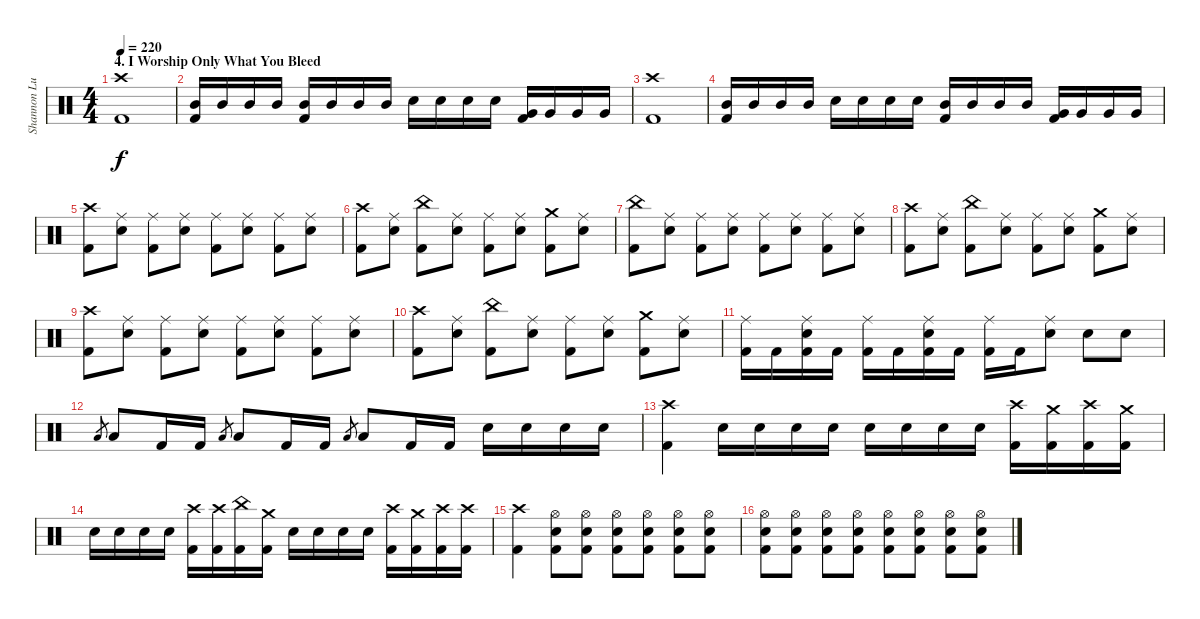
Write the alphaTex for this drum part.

\track ("Shannon Lucas [Drums (Since 2007)]" "Shannon Lu") {instrument percussion}
\staff {score}
\articulation defaults
\ts (4 4)
\section ("" "4. I Worship Only What You Bleed")
\tempo 220
\clef neutral
\ks c
("Crash high (hit)" "Kick (hit) 2").1{dy f} |
("Mid Tom (hit)" "Kick (hit) 2").16 "Mid Tom (hit)".16 "Mid Tom (hit)".16 "Mid Tom (hit)".16 ("Mid Tom (hit)" "Kick (hit) 2").16 "Mid Tom (hit)".16 "Mid Tom (hit)".16 "Mid Tom (hit)".16 "Snare (hit) 2".16 "Snare (hit) 2".16 "Snare (hit) 2".16 "Snare (hit) 2".16 ("Very Low Tom (hit)" "Kick (hit) 2").16 "Very Low Tom (hit)".16 "Very Low Tom (hit)".16 "Very Low Tom (hit)".16 |
("Crash high (hit)" "Kick (hit) 2").1 |
("Mid Tom (hit)" "Kick (hit) 2").16 "Mid Tom (hit)".16 "Mid Tom (hit)".16 "Mid Tom (hit)".16 "Snare (hit) 2".16 "Snare (hit) 2".16 "Snare (hit) 2".16 "Snare (hit) 2".16 ("Mid Tom (hit)" "Kick (hit) 2").16 "Mid Tom (hit)".16 "Mid Tom (hit)".16 "Mid Tom (hit)".16 ("Very Low Tom (hit)" "Kick (hit) 2").16 "Very Low Tom (hit)".16 "Very Low Tom (hit)".16 "Very Low Tom (hit)".16 |
("Crash high (hit)" "Kick (hit) 2").8 ("Ride (middle)" "Snare (hit) 2").8 ("Ride (middle)" "Kick (hit) 2").8 ("Ride (middle)" "Snare (hit) 2").8 ("Ride (middle)" "Kick (hit) 2").8 ("Ride (middle)" "Snare (hit) 2").8 ("Ride (middle)" "Kick (hit) 2").8 ("Ride (middle)" "Snare (hit) 2").8 |
("Crash high (hit)" "Kick (hit) 2").8 ("Ride (middle)" "Snare (hit) 2").8 ("China (hit)" "Kick (hit) 2").8 ("Ride (middle)" "Snare (hit) 2").8 ("Ride (middle)" "Kick (hit) 2").8 ("Ride (middle)" "Snare (hit) 2").8 ("Crash medium (hit)" "Kick (hit) 2").8 ("Ride (middle)" "Snare (hit) 2").8 |
("China (hit)" "Kick (hit) 2").8 ("Ride (middle)" "Snare (hit) 2").8 ("Ride (middle)" "Kick (hit) 2").8 ("Ride (middle)" "Snare (hit) 2").8 ("Ride (middle)" "Kick (hit) 2").8 ("Ride (middle)" "Snare (hit) 2").8 ("Ride (middle)" "Kick (hit) 2").8 ("Ride (middle)" "Snare (hit) 2").8 |
("Crash high (hit)" "Kick (hit) 2").8 ("Ride (middle)" "Snare (hit) 2").8 ("China (hit)" "Kick (hit) 2").8 ("Ride (middle)" "Snare (hit) 2").8 ("Ride (middle)" "Kick (hit) 2").8 ("Ride (middle)" "Snare (hit) 2").8 ("Crash medium (hit)" "Kick (hit) 2").8 ("Ride (middle)" "Snare (hit) 2").8 |
("Crash high (hit)" "Kick (hit) 2").8 ("Ride (middle)" "Snare (hit) 2").8 ("Ride (middle)" "Kick (hit) 2").8 ("Ride (middle)" "Snare (hit) 2").8 ("Ride (middle)" "Kick (hit) 2").8 ("Ride (middle)" "Snare (hit) 2").8 ("Ride (middle)" "Kick (hit) 2").8 ("Ride (middle)" "Snare (hit) 2").8 |
("Crash high (hit)" "Kick (hit) 2").8 ("Ride (middle)" "Snare (hit) 2").8 ("China (hit)" "Kick (hit) 2").8 ("Ride (middle)" "Snare (hit) 2").8 ("Ride (middle)" "Kick (hit) 2").8 ("Ride (middle)" "Snare (hit) 2").8 ("Crash medium (hit)" "Kick (hit) 2").8 ("Ride (middle)" "Snare (hit) 2").8 |
("Ride (middle)" "Kick (hit) 2").16 "Kick (hit) 2".16 ("Ride (middle)" "Snare (hit) 2" "Kick (hit) 2").16 "Kick (hit) 2".16 ("Ride (middle)" "Kick (hit) 2").16 "Kick (hit) 2".16 ("Ride (middle)" "Snare (hit) 2" "Kick (hit) 2").16 "Kick (hit) 2".16 ("Ride (middle)" "Kick (hit) 2").16 "Kick (hit) 2".16 ("Ride (middle)" "Snare (hit) 2").8 "Snare (hit) 2".8 "Snare (hit) 2".8 |
"Low Floor Tom (hit)".8{gr} "Low Floor Tom (hit)".8 "Kick (hit) 2".16 "Kick (hit) 2".16 "Low Floor Tom (hit)".8{gr} "Low Floor Tom (hit)".8 "Kick (hit) 2".16 "Kick (hit) 2".16 "Low Floor Tom (hit)".8{gr} "Low Floor Tom (hit)".8 "Kick (hit) 2".16 "Kick (hit) 2".16 "Snare (hit) 2".16 "Snare (hit) 2".16 "Snare (hit) 2".16 "Snare (hit) 2".16 |
("Crash high (hit)" "Kick (hit) 2").4 "Snare (hit) 2".16 "Snare (hit) 2".16 "Snare (hit) 2".16 "Snare (hit) 2".16 "Snare (hit) 2".16 "Snare (hit) 2".16 "Snare (hit) 2".16 "Snare (hit) 2".16 ("Crash high (hit)" "Kick (hit) 2").16 ("Crash medium (hit)" "Kick (hit) 2").16 ("Crash high (hit)" "Kick (hit) 2").16 ("Crash medium (hit)" "Kick (hit) 2").16 |
"Snare (hit) 2".16 "Snare (hit) 2".16 "Snare (hit) 2".16 "Snare (hit) 2".16 ("Crash high (hit)" "Kick (hit) 2").16 ("Crash high (hit)" "Kick (hit) 2").16 ("China (hit)" "Kick (hit) 2").16 ("Crash medium (hit)" "Kick (hit) 2").16 "Snare (hit) 2".16 "Snare (hit) 2".16 "Snare (hit) 2".16 "Snare (hit) 2".16 ("Crash high (hit)" "Kick (hit) 2").16 ("Crash medium (hit)" "Kick (hit) 2").16 ("Crash high (hit)" "Kick (hit) 2").16 ("Crash high (hit)" "Kick (hit) 2").16 |
("Crash high (hit)" "Kick (hit) 2").4 ("Hi-Hat (open)" "Kick (hit) 2" "Snare (hit) 2").8 ("Hi-Hat (open)" "Kick (hit) 2" "Snare (hit) 2").8 ("Hi-Hat (open)" "Kick (hit) 2" "Snare (hit) 2").8 ("Hi-Hat (open)" "Kick (hit) 2" "Snare (hit) 2").8 ("Hi-Hat (open)" "Kick (hit) 2" "Snare (hit) 2").8 ("Hi-Hat (open)" "Kick (hit) 2" "Snare (hit) 2").8 |
("Hi-Hat (open)" "Kick (hit) 2" "Snare (hit) 2").8 ("Hi-Hat (open)" "Kick (hit) 2" "Snare (hit) 2").8 ("Hi-Hat (open)" "Kick (hit) 2" "Snare (hit) 2").8 ("Hi-Hat (open)" "Kick (hit) 2" "Snare (hit) 2").8 ("Hi-Hat (open)" "Kick (hit) 2" "Snare (hit) 2").8 ("Hi-Hat (open)" "Kick (hit) 2" "Snare (hit) 2").8 ("Hi-Hat (open)" "Kick (hit) 2" "Snare (hit) 2").8 ("Hi-Hat (open)" "Kick (hit) 2" "Snare (hit) 2").8
